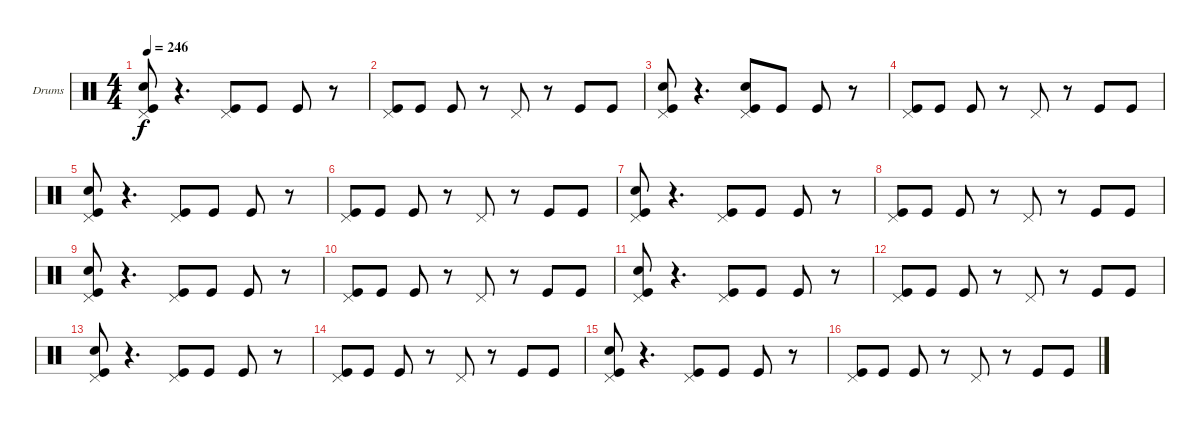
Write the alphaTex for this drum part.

\bracketExtendMode groupsimilarinstruments
\firstSystemTrackNameOrientation horizontal
\otherSystemsTrackNameOrientation horizontal
\track ("Drumkit" "Drums") {instrument percussion}
\staff {score}
\articulation defaults
\ts (4 4)
\tempo 246
\clef neutral
\ks c
("Kick (hit)" "Pedal Hi-Hat (hit)" "Snare (hit) 2").8{dy f} r.4{d} ("Kick (hit)" "Pedal Hi-Hat (hit)").8 "Kick (hit)".8 "Kick (hit)".8 r.8 |
("Kick (hit)" "Pedal Hi-Hat (hit)").8 "Kick (hit)".8 "Kick (hit)".8 r.8 "Pedal Hi-Hat (hit)".8 r.8 "Kick (hit)".8 "Kick (hit)".8 |
("Kick (hit)" "Pedal Hi-Hat (hit)" "Snare (hit) 2").8 r.4{d} ("Kick (hit)" "Pedal Hi-Hat (hit)" "Snare (hit) 2").8 "Kick (hit)".8 "Kick (hit)".8 r.8 |
("Pedal Hi-Hat (hit)" "Kick (hit)").8 "Kick (hit)".8 "Kick (hit)".8 r.8 "Pedal Hi-Hat (hit)".8 r.8 "Kick (hit)".8 "Kick (hit)".8 |
("Kick (hit)" "Pedal Hi-Hat (hit)" "Snare (hit) 2").8 r.4{d} ("Kick (hit)" "Pedal Hi-Hat (hit)").8 "Kick (hit)".8 "Kick (hit)".8 r.8 |
("Kick (hit)" "Pedal Hi-Hat (hit)").8 "Kick (hit)".8 "Kick (hit)".8 r.8 "Pedal Hi-Hat (hit)".8 r.8 "Kick (hit)".8 "Kick (hit)".8 |
("Kick (hit)" "Pedal Hi-Hat (hit)" "Snare (hit) 2").8 r.4{d} ("Kick (hit)" "Pedal Hi-Hat (hit)").8 "Kick (hit)".8 "Kick (hit)".8 r.8 |
("Pedal Hi-Hat (hit)" "Kick (hit)").8 "Kick (hit)".8 "Kick (hit)".8 r.8 "Pedal Hi-Hat (hit)".8 r.8 "Kick (hit)".8 "Kick (hit)".8 |
("Kick (hit)" "Pedal Hi-Hat (hit)" "Snare (hit) 2").8 r.4{d} ("Pedal Hi-Hat (hit)" "Kick (hit)").8 "Kick (hit)".8 "Kick (hit)".8 r.8 |
("Pedal Hi-Hat (hit)" "Kick (hit)").8 "Kick (hit)".8 "Kick (hit)".8 r.8 "Pedal Hi-Hat (hit)".8 r.8 "Kick (hit)".8 "Kick (hit)".8 |
("Kick (hit)" "Pedal Hi-Hat (hit)" "Snare (hit) 2").8 r.4{d} ("Pedal Hi-Hat (hit)" "Kick (hit)").8 "Kick (hit)".8 "Kick (hit)".8 r.8 |
("Kick (hit)" "Pedal Hi-Hat (hit)").8 "Kick (hit)".8 "Kick (hit)".8 r.8 "Pedal Hi-Hat (hit)".8 r.8 "Kick (hit)".8 "Kick (hit)".8 |
("Kick (hit)" "Pedal Hi-Hat (hit)" "Snare (hit) 2").8 r.4{d} ("Pedal Hi-Hat (hit)" "Kick (hit)").8 "Kick (hit)".8 "Kick (hit)".8 r.8 |
("Pedal Hi-Hat (hit)" "Kick (hit)").8 "Kick (hit)".8 "Kick (hit)".8 r.8 "Pedal Hi-Hat (hit)".8 r.8 "Kick (hit)".8 "Kick (hit)".8 |
("Kick (hit)" "Pedal Hi-Hat (hit)" "Snare (hit) 2").8 r.4{d} ("Pedal Hi-Hat (hit)" "Kick (hit)").8 "Kick (hit)".8 "Kick (hit)".8 r.8 |
("Kick (hit)" "Pedal Hi-Hat (hit)").8 "Kick (hit)".8 "Kick (hit)".8 r.8 "Pedal Hi-Hat (hit)".8 r.8 "Kick (hit)".8 "Kick (hit)".8
